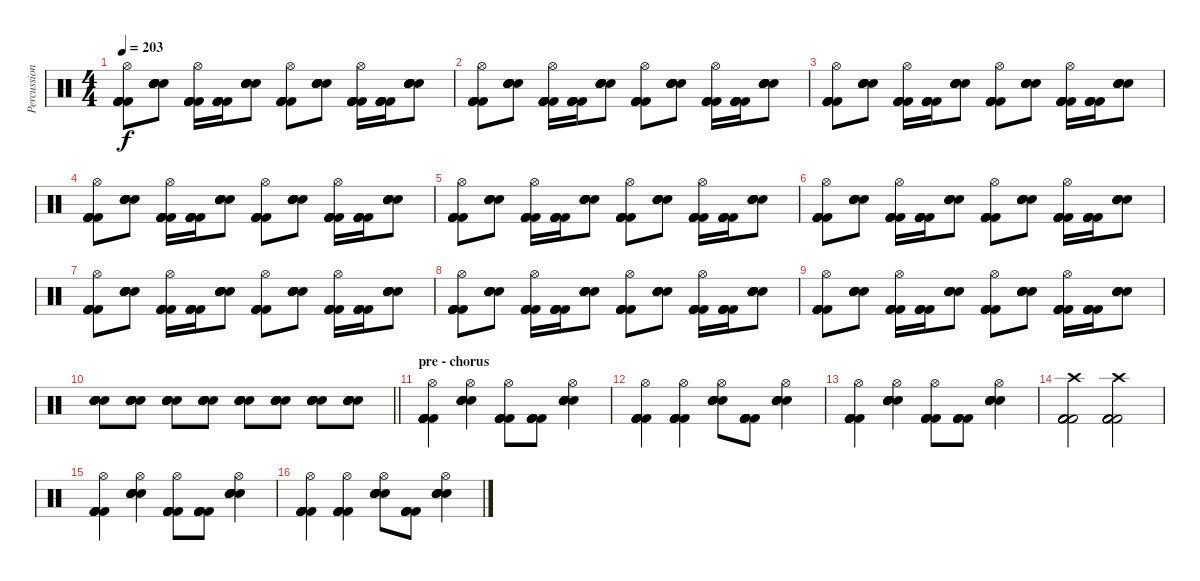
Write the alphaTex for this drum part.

\track ("Percussion" "Percussion") {instrument percussion}
\staff {score}
\articulation defaults
\ts (4 4)
\tempo 203
\clef neutral
\ks c
("Kick (hit) 2" "Kick (hit) 2" "Kick (hit) 2" "Kick (hit) 2" "Kick (hit) 2" "Hi-Hat (open)").8{dy f} ("Electric Snare (hit)" "Electric Snare (hit)" "Electric Snare (hit)" "Electric Snare (hit)" "Electric Snare (hit)").8 ("Kick (hit) 2" "Kick (hit) 2" "Kick (hit) 2" "Kick (hit) 2" "Kick (hit) 2" "Hi-Hat (open)").16 ("Kick (hit) 2" "Kick (hit) 2" "Kick (hit) 2" "Kick (hit) 2" "Kick (hit) 2").16 ("Electric Snare (hit)" "Electric Snare (hit)" "Electric Snare (hit)" "Electric Snare (hit)" "Electric Snare (hit)").8 ("Kick (hit) 2" "Kick (hit) 2" "Kick (hit) 2" "Kick (hit) 2" "Kick (hit) 2" "Hi-Hat (open)").8 ("Electric Snare (hit)" "Electric Snare (hit)" "Electric Snare (hit)" "Electric Snare (hit)" "Electric Snare (hit)").8 ("Kick (hit) 2" "Kick (hit) 2" "Kick (hit) 2" "Kick (hit) 2" "Kick (hit) 2" "Hi-Hat (open)").16 ("Kick (hit) 2" "Kick (hit) 2" "Kick (hit) 2" "Kick (hit) 2" "Kick (hit) 2").16 ("Electric Snare (hit)" "Electric Snare (hit)" "Electric Snare (hit)" "Electric Snare (hit)" "Electric Snare (hit)").8 |
("Kick (hit) 2" "Kick (hit) 2" "Kick (hit) 2" "Kick (hit) 2" "Kick (hit) 2" "Hi-Hat (open)").8 ("Electric Snare (hit)" "Electric Snare (hit)" "Electric Snare (hit)" "Electric Snare (hit)" "Electric Snare (hit)").8 ("Kick (hit) 2" "Kick (hit) 2" "Kick (hit) 2" "Kick (hit) 2" "Kick (hit) 2" "Hi-Hat (open)").16 ("Kick (hit) 2" "Kick (hit) 2" "Kick (hit) 2" "Kick (hit) 2" "Kick (hit) 2").16 ("Electric Snare (hit)" "Electric Snare (hit)" "Electric Snare (hit)" "Electric Snare (hit)" "Electric Snare (hit)").8 ("Kick (hit) 2" "Kick (hit) 2" "Kick (hit) 2" "Kick (hit) 2" "Kick (hit) 2" "Hi-Hat (open)").8 ("Electric Snare (hit)" "Electric Snare (hit)" "Electric Snare (hit)" "Electric Snare (hit)" "Electric Snare (hit)").8 ("Kick (hit) 2" "Kick (hit) 2" "Kick (hit) 2" "Kick (hit) 2" "Kick (hit) 2" "Hi-Hat (open)").16 ("Kick (hit) 2" "Kick (hit) 2" "Kick (hit) 2" "Kick (hit) 2" "Kick (hit) 2").16 ("Electric Snare (hit)" "Electric Snare (hit)" "Electric Snare (hit)" "Electric Snare (hit)" "Electric Snare (hit)").8 |
("Kick (hit) 2" "Kick (hit) 2" "Kick (hit) 2" "Kick (hit) 2" "Kick (hit) 2" "Hi-Hat (open)").8 ("Electric Snare (hit)" "Electric Snare (hit)" "Electric Snare (hit)" "Electric Snare (hit)" "Electric Snare (hit)").8 ("Kick (hit) 2" "Kick (hit) 2" "Kick (hit) 2" "Kick (hit) 2" "Kick (hit) 2" "Hi-Hat (open)").16 ("Kick (hit) 2" "Kick (hit) 2" "Kick (hit) 2" "Kick (hit) 2" "Kick (hit) 2").16 ("Electric Snare (hit)" "Electric Snare (hit)" "Electric Snare (hit)" "Electric Snare (hit)" "Electric Snare (hit)").8 ("Kick (hit) 2" "Kick (hit) 2" "Kick (hit) 2" "Kick (hit) 2" "Kick (hit) 2" "Hi-Hat (open)").8 ("Electric Snare (hit)" "Electric Snare (hit)" "Electric Snare (hit)" "Electric Snare (hit)" "Electric Snare (hit)").8 ("Kick (hit) 2" "Kick (hit) 2" "Kick (hit) 2" "Kick (hit) 2" "Kick (hit) 2" "Hi-Hat (open)").16 ("Kick (hit) 2" "Kick (hit) 2" "Kick (hit) 2" "Kick (hit) 2" "Kick (hit) 2").16 ("Electric Snare (hit)" "Electric Snare (hit)" "Electric Snare (hit)" "Electric Snare (hit)" "Electric Snare (hit)").8 |
("Kick (hit) 2" "Kick (hit) 2" "Kick (hit) 2" "Kick (hit) 2" "Kick (hit) 2" "Hi-Hat (open)").8 ("Electric Snare (hit)" "Electric Snare (hit)" "Electric Snare (hit)" "Electric Snare (hit)" "Electric Snare (hit)").8 ("Kick (hit) 2" "Kick (hit) 2" "Kick (hit) 2" "Kick (hit) 2" "Kick (hit) 2" "Hi-Hat (open)").16 ("Kick (hit) 2" "Kick (hit) 2" "Kick (hit) 2" "Kick (hit) 2" "Kick (hit) 2").16 ("Electric Snare (hit)" "Electric Snare (hit)" "Electric Snare (hit)" "Electric Snare (hit)" "Electric Snare (hit)").8 ("Kick (hit) 2" "Kick (hit) 2" "Kick (hit) 2" "Kick (hit) 2" "Kick (hit) 2" "Hi-Hat (open)").8 ("Electric Snare (hit)" "Electric Snare (hit)" "Electric Snare (hit)" "Electric Snare (hit)" "Electric Snare (hit)").8 ("Kick (hit) 2" "Kick (hit) 2" "Kick (hit) 2" "Kick (hit) 2" "Kick (hit) 2" "Hi-Hat (open)").16 ("Kick (hit) 2" "Kick (hit) 2" "Kick (hit) 2" "Kick (hit) 2" "Kick (hit) 2").16 ("Electric Snare (hit)" "Electric Snare (hit)" "Electric Snare (hit)" "Electric Snare (hit)" "Electric Snare (hit)").8 |
("Kick (hit) 2" "Kick (hit) 2" "Kick (hit) 2" "Kick (hit) 2" "Kick (hit) 2" "Hi-Hat (open)").8 ("Electric Snare (hit)" "Electric Snare (hit)" "Electric Snare (hit)" "Electric Snare (hit)" "Electric Snare (hit)").8 ("Kick (hit) 2" "Kick (hit) 2" "Kick (hit) 2" "Kick (hit) 2" "Kick (hit) 2" "Hi-Hat (open)").16 ("Kick (hit) 2" "Kick (hit) 2" "Kick (hit) 2" "Kick (hit) 2" "Kick (hit) 2").16 ("Electric Snare (hit)" "Electric Snare (hit)" "Electric Snare (hit)" "Electric Snare (hit)" "Electric Snare (hit)").8 ("Kick (hit) 2" "Kick (hit) 2" "Kick (hit) 2" "Kick (hit) 2" "Kick (hit) 2" "Hi-Hat (open)").8 ("Electric Snare (hit)" "Electric Snare (hit)" "Electric Snare (hit)" "Electric Snare (hit)" "Electric Snare (hit)").8 ("Kick (hit) 2" "Kick (hit) 2" "Kick (hit) 2" "Kick (hit) 2" "Kick (hit) 2" "Hi-Hat (open)").16 ("Kick (hit) 2" "Kick (hit) 2" "Kick (hit) 2" "Kick (hit) 2" "Kick (hit) 2").16 ("Electric Snare (hit)" "Electric Snare (hit)" "Electric Snare (hit)" "Electric Snare (hit)" "Electric Snare (hit)").8 |
("Kick (hit) 2" "Kick (hit) 2" "Kick (hit) 2" "Kick (hit) 2" "Kick (hit) 2" "Hi-Hat (open)").8 ("Electric Snare (hit)" "Electric Snare (hit)" "Electric Snare (hit)" "Electric Snare (hit)" "Electric Snare (hit)").8 ("Kick (hit) 2" "Kick (hit) 2" "Kick (hit) 2" "Kick (hit) 2" "Kick (hit) 2" "Hi-Hat (open)").16 ("Kick (hit) 2" "Kick (hit) 2" "Kick (hit) 2" "Kick (hit) 2" "Kick (hit) 2").16 ("Electric Snare (hit)" "Electric Snare (hit)" "Electric Snare (hit)" "Electric Snare (hit)" "Electric Snare (hit)").8 ("Kick (hit) 2" "Kick (hit) 2" "Kick (hit) 2" "Kick (hit) 2" "Kick (hit) 2" "Hi-Hat (open)").8 ("Electric Snare (hit)" "Electric Snare (hit)" "Electric Snare (hit)" "Electric Snare (hit)" "Electric Snare (hit)").8 ("Kick (hit) 2" "Kick (hit) 2" "Kick (hit) 2" "Kick (hit) 2" "Kick (hit) 2" "Hi-Hat (open)").16 ("Kick (hit) 2" "Kick (hit) 2" "Kick (hit) 2" "Kick (hit) 2" "Kick (hit) 2").16 ("Electric Snare (hit)" "Electric Snare (hit)" "Electric Snare (hit)" "Electric Snare (hit)" "Electric Snare (hit)").8 |
("Kick (hit) 2" "Kick (hit) 2" "Kick (hit) 2" "Kick (hit) 2" "Kick (hit) 2" "Hi-Hat (open)").8 ("Electric Snare (hit)" "Electric Snare (hit)" "Electric Snare (hit)" "Electric Snare (hit)" "Electric Snare (hit)").8 ("Kick (hit) 2" "Kick (hit) 2" "Kick (hit) 2" "Kick (hit) 2" "Kick (hit) 2" "Hi-Hat (open)").16 ("Kick (hit) 2" "Kick (hit) 2" "Kick (hit) 2" "Kick (hit) 2" "Kick (hit) 2").16 ("Electric Snare (hit)" "Electric Snare (hit)" "Electric Snare (hit)" "Electric Snare (hit)" "Electric Snare (hit)").8 ("Kick (hit) 2" "Kick (hit) 2" "Kick (hit) 2" "Kick (hit) 2" "Kick (hit) 2" "Hi-Hat (open)").8 ("Electric Snare (hit)" "Electric Snare (hit)" "Electric Snare (hit)" "Electric Snare (hit)" "Electric Snare (hit)").8 ("Kick (hit) 2" "Kick (hit) 2" "Kick (hit) 2" "Kick (hit) 2" "Kick (hit) 2" "Hi-Hat (open)").16 ("Kick (hit) 2" "Kick (hit) 2" "Kick (hit) 2" "Kick (hit) 2" "Kick (hit) 2").16 ("Electric Snare (hit)" "Electric Snare (hit)" "Electric Snare (hit)" "Electric Snare (hit)" "Electric Snare (hit)").8 |
("Kick (hit) 2" "Kick (hit) 2" "Kick (hit) 2" "Kick (hit) 2" "Kick (hit) 2" "Hi-Hat (open)").8 ("Electric Snare (hit)" "Electric Snare (hit)" "Electric Snare (hit)" "Electric Snare (hit)" "Electric Snare (hit)").8 ("Kick (hit) 2" "Kick (hit) 2" "Kick (hit) 2" "Kick (hit) 2" "Kick (hit) 2" "Hi-Hat (open)").16 ("Kick (hit) 2" "Kick (hit) 2" "Kick (hit) 2" "Kick (hit) 2" "Kick (hit) 2").16 ("Electric Snare (hit)" "Electric Snare (hit)" "Electric Snare (hit)" "Electric Snare (hit)" "Electric Snare (hit)").8 ("Kick (hit) 2" "Kick (hit) 2" "Kick (hit) 2" "Kick (hit) 2" "Kick (hit) 2" "Hi-Hat (open)").8 ("Electric Snare (hit)" "Electric Snare (hit)" "Electric Snare (hit)" "Electric Snare (hit)" "Electric Snare (hit)").8 ("Kick (hit) 2" "Kick (hit) 2" "Kick (hit) 2" "Kick (hit) 2" "Kick (hit) 2" "Hi-Hat (open)").16 ("Kick (hit) 2" "Kick (hit) 2" "Kick (hit) 2" "Kick (hit) 2" "Kick (hit) 2").16 ("Electric Snare (hit)" "Electric Snare (hit)" "Electric Snare (hit)" "Electric Snare (hit)" "Electric Snare (hit)").8 |
("Kick (hit) 2" "Kick (hit) 2" "Kick (hit) 2" "Kick (hit) 2" "Kick (hit) 2" "Hi-Hat (open)").8 ("Electric Snare (hit)" "Electric Snare (hit)" "Electric Snare (hit)" "Electric Snare (hit)" "Electric Snare (hit)").8 ("Kick (hit) 2" "Kick (hit) 2" "Kick (hit) 2" "Kick (hit) 2" "Kick (hit) 2" "Hi-Hat (open)").16 ("Kick (hit) 2" "Kick (hit) 2" "Kick (hit) 2" "Kick (hit) 2" "Kick (hit) 2").16 ("Electric Snare (hit)" "Electric Snare (hit)" "Electric Snare (hit)" "Electric Snare (hit)" "Electric Snare (hit)").8 ("Kick (hit) 2" "Kick (hit) 2" "Kick (hit) 2" "Kick (hit) 2" "Kick (hit) 2" "Hi-Hat (open)").8 ("Electric Snare (hit)" "Electric Snare (hit)" "Electric Snare (hit)" "Electric Snare (hit)" "Electric Snare (hit)").8 ("Kick (hit) 2" "Kick (hit) 2" "Kick (hit) 2" "Kick (hit) 2" "Kick (hit) 2" "Hi-Hat (open)").16 ("Kick (hit) 2" "Kick (hit) 2" "Kick (hit) 2" "Kick (hit) 2" "Kick (hit) 2").16 ("Electric Snare (hit)" "Electric Snare (hit)" "Electric Snare (hit)" "Electric Snare (hit)" "Electric Snare (hit)").8 |
\barLineRight lightlight
("Electric Snare (hit)" "Electric Snare (hit)" "Electric Snare (hit)" "Electric Snare (hit)" "Electric Snare (hit)" "Electric Snare (hit)").8 ("Snare (hit) 2" "Snare (hit) 2" "Snare (hit) 2" "Snare (hit) 2" "Snare (hit) 2" "Snare (hit) 2").8 ("Electric Snare (hit)" "Electric Snare (hit)" "Electric Snare (hit)" "Electric Snare (hit)" "Electric Snare (hit)" "Electric Snare (hit)").8 ("Snare (hit) 2" "Snare (hit) 2" "Snare (hit) 2" "Snare (hit) 2" "Snare (hit) 2" "Snare (hit) 2").8 ("Electric Snare (hit)" "Electric Snare (hit)" "Electric Snare (hit)" "Electric Snare (hit)" "Electric Snare (hit)" "Electric Snare (hit)").8 ("Snare (hit) 2" "Snare (hit) 2" "Snare (hit) 2" "Snare (hit) 2" "Snare (hit) 2" "Snare (hit) 2").8 ("Electric Snare (hit)" "Electric Snare (hit)" "Electric Snare (hit)" "Electric Snare (hit)" "Electric Snare (hit)" "Electric Snare (hit)").8 ("Snare (hit) 2" "Snare (hit) 2" "Snare (hit) 2" "Snare (hit) 2" "Snare (hit) 2" "Snare (hit) 2").8 |
\section ("" "pre - chorus")
("Kick (hit) 2" "Kick (hit) 2" "Kick (hit) 2" "Kick (hit) 2" "Kick (hit) 2" "Hi-Hat (open)").4 ("Electric Snare (hit)" "Electric Snare (hit)" "Electric Snare (hit)" "Electric Snare (hit)" "Electric Snare (hit)" "Hi-Hat (open)").4 ("Kick (hit) 2" "Kick (hit) 2" "Kick (hit) 2" "Kick (hit) 2" "Kick (hit) 2" "Hi-Hat (open)").8 ("Kick (hit) 2" "Kick (hit) 2" "Kick (hit) 2" "Kick (hit) 2" "Kick (hit) 2").8 ("Electric Snare (hit)" "Electric Snare (hit)" "Electric Snare (hit)" "Electric Snare (hit)" "Electric Snare (hit)" "Hi-Hat (open)").4 |
("Kick (hit) 2" "Kick (hit) 2" "Kick (hit) 2" "Kick (hit) 2" "Kick (hit) 2" "Hi-Hat (open)").4 ("Kick (hit) 2" "Kick (hit) 2" "Kick (hit) 2" "Kick (hit) 2" "Kick (hit) 2" "Hi-Hat (open)").4 ("Electric Snare (hit)" "Electric Snare (hit)" "Electric Snare (hit)" "Electric Snare (hit)" "Electric Snare (hit)" "Hi-Hat (open)").8 ("Kick (hit) 2" "Kick (hit) 2" "Kick (hit) 2" "Kick (hit) 2" "Kick (hit) 2").8 ("Electric Snare (hit)" "Electric Snare (hit)" "Electric Snare (hit)" "Electric Snare (hit)" "Electric Snare (hit)" "Hi-Hat (open)").4 |
("Kick (hit) 2" "Kick (hit) 2" "Kick (hit) 2" "Kick (hit) 2" "Kick (hit) 2" "Hi-Hat (open)").4 ("Electric Snare (hit)" "Electric Snare (hit)" "Electric Snare (hit)" "Electric Snare (hit)" "Electric Snare (hit)" "Hi-Hat (open)").4 ("Kick (hit) 2" "Kick (hit) 2" "Kick (hit) 2" "Kick (hit) 2" "Kick (hit) 2" "Hi-Hat (open)").8 ("Kick (hit) 2" "Kick (hit) 2" "Kick (hit) 2" "Kick (hit) 2" "Kick (hit) 2").8 ("Electric Snare (hit)" "Electric Snare (hit)" "Electric Snare (hit)" "Electric Snare (hit)" "Electric Snare (hit)" "Hi-Hat (open)").4 |
("Kick (hit) 2" "Kick (hit) 2" "Kick (hit) 2" "Kick (hit) 2" "Kick (hit) 2" "Crash high (hit)").2 ("Kick (hit) 2" "Kick (hit) 2" "Kick (hit) 2" "Kick (hit) 2" "Kick (hit) 2" "Crash high (hit)").2 |
("Kick (hit) 2" "Kick (hit) 2" "Kick (hit) 2" "Kick (hit) 2" "Kick (hit) 2" "Hi-Hat (open)").4 ("Electric Snare (hit)" "Electric Snare (hit)" "Electric Snare (hit)" "Electric Snare (hit)" "Electric Snare (hit)" "Hi-Hat (open)").4 ("Kick (hit) 2" "Kick (hit) 2" "Kick (hit) 2" "Kick (hit) 2" "Kick (hit) 2" "Hi-Hat (open)").8 ("Kick (hit) 2" "Kick (hit) 2" "Kick (hit) 2" "Kick (hit) 2" "Kick (hit) 2").8 ("Electric Snare (hit)" "Electric Snare (hit)" "Electric Snare (hit)" "Electric Snare (hit)" "Electric Snare (hit)" "Hi-Hat (open)").4 |
("Kick (hit) 2" "Kick (hit) 2" "Kick (hit) 2" "Kick (hit) 2" "Kick (hit) 2" "Hi-Hat (open)").4 ("Kick (hit) 2" "Kick (hit) 2" "Kick (hit) 2" "Kick (hit) 2" "Kick (hit) 2" "Hi-Hat (open)").4 ("Electric Snare (hit)" "Electric Snare (hit)" "Electric Snare (hit)" "Electric Snare (hit)" "Electric Snare (hit)" "Hi-Hat (open)").8 ("Kick (hit) 2" "Kick (hit) 2" "Kick (hit) 2" "Kick (hit) 2" "Kick (hit) 2").8 ("Electric Snare (hit)" "Electric Snare (hit)" "Electric Snare (hit)" "Electric Snare (hit)" "Electric Snare (hit)" "Hi-Hat (open)").4
